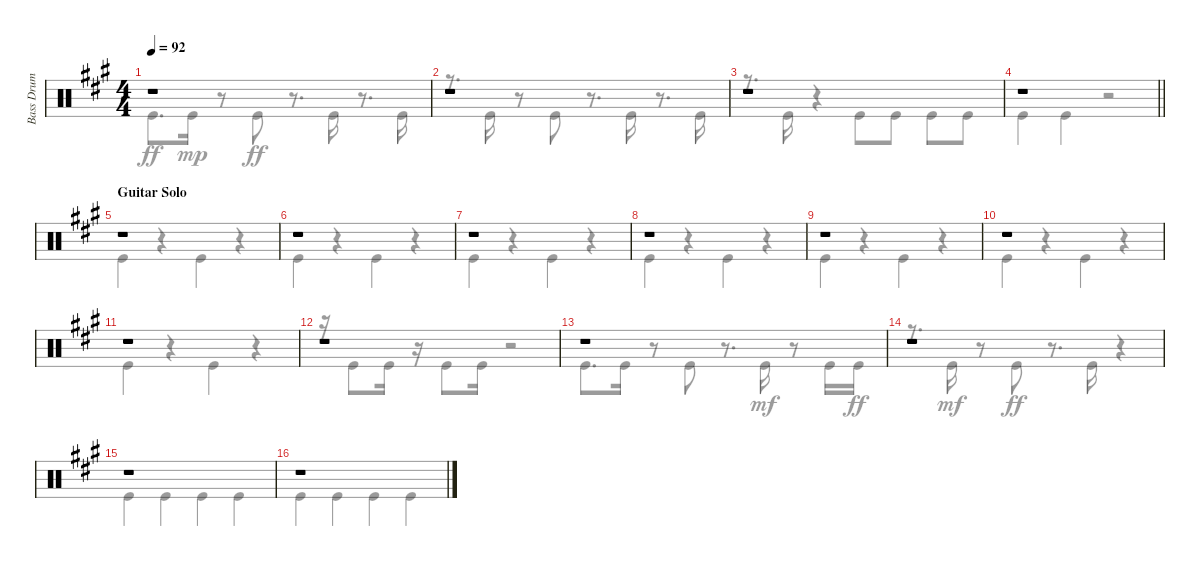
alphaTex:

\track ("Bass Drum" "Bass Drum") {instrument percussion}
\staff {score}
\articulation defaults
\voice
\ts (4 4)
\tempo 92
\clef neutral
\ks f#minor
r.1{dy f} |
r.1 |
r.1 |
\barLineRight lightlight
r.1 |
\section ("" "Guitar Solo")
r.1 |
r.1 |
r.1 |
r.1 |
r.1 |
r.1 |
r.1 |
r.1 |
r.1 |
r.1 |
r.1 |
r.1
\voice
\clef neutral
\ottava regular
\simile none
\ks f#minor "Kick (hit)".8{d dy ff} "Kick (hit)".16{dy mp}
r.8 "Kick (hit)".8{dy ff} r.8{d} "Kick (hit)".16 r.8{d} "Kick (hit)".16 |
r.8{d} "Kick (hit)".16 r.8 "Kick (hit)".8 r.8{d} "Kick (hit)".16 r.8{d} "Kick (hit)".16 |
r.8{d} "Kick (hit)".16 r.4 "Kick (hit)".8 "Kick (hit)".8 "Kick (hit)".8 "Kick (hit)".8 |
\barLineRight lightlight "Kick (hit)".4 "Kick (hit)".4
r.2 |
"Kick (hit)".4 r.4 "Kick (hit)".4 r.4 |
"Kick (hit)".4 r.4 "Kick (hit)".4 r.4 |
"Kick (hit)".4 r.4 "Kick (hit)".4 r.4 |
"Kick (hit)".4 r.4 "Kick (hit)".4 r.4 |
"Kick (hit)".4 r.4 "Kick (hit)".4 r.4 |
"Kick (hit)".4 r.4 "Kick (hit)".4 r.4 |
"Kick (hit)".4 r.4 "Kick (hit)".4 r.4 |
r.16 "Kick (hit)".8 "Kick (hit)".16 r.16 "Kick (hit)".8 "Kick (hit)".16 r.2 |
"Kick (hit)".8{d} "Kick (hit)".16 r.8 "Kick (hit)".8 r.8{d} "Kick (hit)".16{dy mf} r.8 "Kick (hit)".16 "Kick (hit)".16{dy ff} |
r.8{d} "Kick (hit)".16{dy mf} r.8 "Kick (hit)".8{dy ff} r.8{d} "Kick (hit)".16 r.4 |
"Kick (hit)".4 "Kick (hit)".4 "Kick (hit)".4 "Kick (hit)".4 |
"Kick (hit)".4 "Kick (hit)".4 "Kick (hit)".4 "Kick (hit)".4
